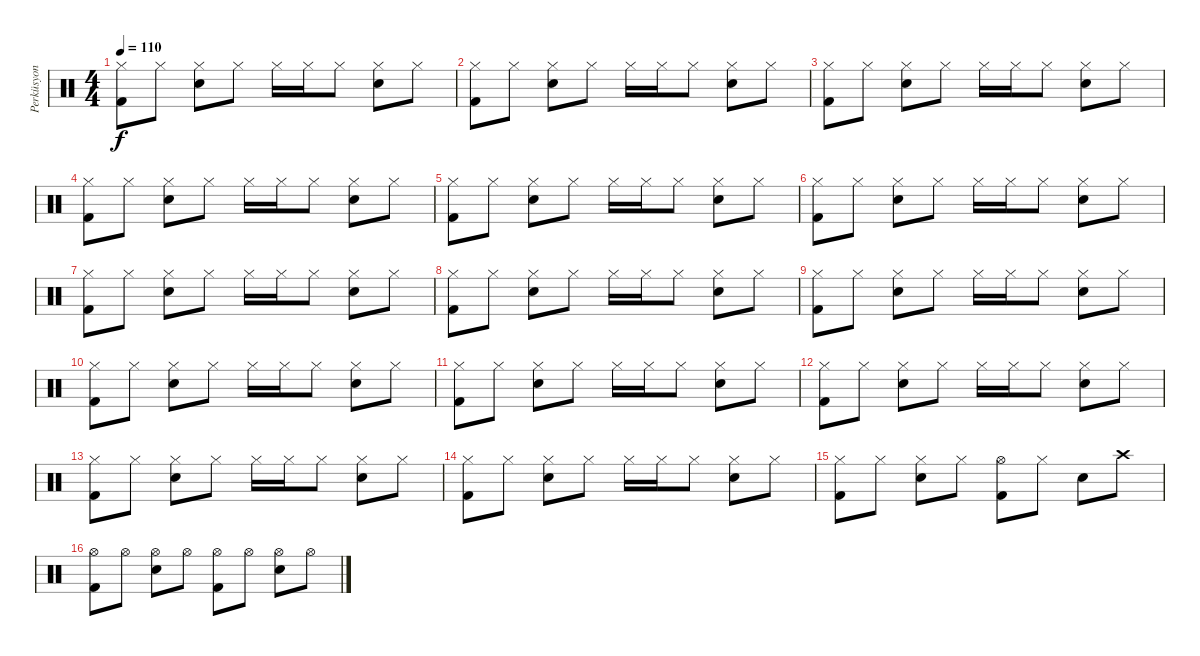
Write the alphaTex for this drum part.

\track ("Perküsyon" "Perküsyon") {instrument percussion}
\staff {score}
\articulation defaults
\ts (4 4)
\tempo 110
\clef neutral
\ks c
("Hi-Hat (closed)" "Kick (hit) 2").8{dy f} "Hi-Hat (closed)".8 ("Hi-Hat (closed)" "Snare (hit) 2").8 "Hi-Hat (closed)".8 "Hi-Hat (closed)".16 "Hi-Hat (closed)".16 "Hi-Hat (closed)".8 ("Hi-Hat (closed)" "Snare (hit) 2").8 "Hi-Hat (closed)".8 |
("Hi-Hat (closed)" "Kick (hit) 2").8 "Hi-Hat (closed)".8 ("Hi-Hat (closed)" "Snare (hit) 2").8 "Hi-Hat (closed)".8 "Hi-Hat (closed)".16 "Hi-Hat (closed)".16 "Hi-Hat (closed)".8 ("Hi-Hat (closed)" "Snare (hit) 2").8 "Hi-Hat (closed)".8 |
("Hi-Hat (closed)" "Kick (hit) 2").8 "Hi-Hat (closed)".8 ("Hi-Hat (closed)" "Snare (hit) 2").8 "Hi-Hat (closed)".8 "Hi-Hat (closed)".16 "Hi-Hat (closed)".16 "Hi-Hat (closed)".8 ("Hi-Hat (closed)" "Snare (hit) 2").8 "Hi-Hat (closed)".8 |
("Hi-Hat (closed)" "Kick (hit) 2").8 "Hi-Hat (closed)".8 ("Hi-Hat (closed)" "Snare (hit) 2").8 "Hi-Hat (closed)".8 "Hi-Hat (closed)".16 "Hi-Hat (closed)".16 "Hi-Hat (closed)".8 ("Hi-Hat (closed)" "Snare (hit) 2").8 "Hi-Hat (closed)".8 |
("Hi-Hat (closed)" "Kick (hit) 2").8 "Hi-Hat (closed)".8 ("Hi-Hat (closed)" "Snare (hit) 2").8 "Hi-Hat (closed)".8 "Hi-Hat (closed)".16 "Hi-Hat (closed)".16 "Hi-Hat (closed)".8 ("Hi-Hat (closed)" "Snare (hit) 2").8 "Hi-Hat (closed)".8 |
("Hi-Hat (closed)" "Kick (hit) 2").8 "Hi-Hat (closed)".8 ("Hi-Hat (closed)" "Snare (hit) 2").8 "Hi-Hat (closed)".8 "Hi-Hat (closed)".16 "Hi-Hat (closed)".16 "Hi-Hat (closed)".8 ("Hi-Hat (closed)" "Snare (hit) 2").8 "Hi-Hat (closed)".8 |
("Hi-Hat (closed)" "Kick (hit) 2").8 "Hi-Hat (closed)".8 ("Hi-Hat (closed)" "Snare (hit) 2").8 "Hi-Hat (closed)".8 "Hi-Hat (closed)".16 "Hi-Hat (closed)".16 "Hi-Hat (closed)".8 ("Hi-Hat (closed)" "Snare (hit) 2").8 "Hi-Hat (closed)".8 |
("Hi-Hat (closed)" "Kick (hit) 2").8 "Hi-Hat (closed)".8 ("Hi-Hat (closed)" "Snare (hit) 2").8 "Hi-Hat (closed)".8 "Hi-Hat (closed)".16 "Hi-Hat (closed)".16 "Hi-Hat (closed)".8 ("Hi-Hat (closed)" "Snare (hit) 2").8 "Hi-Hat (closed)".8 |
("Hi-Hat (closed)" "Kick (hit) 2").8 "Hi-Hat (closed)".8 ("Hi-Hat (closed)" "Snare (hit) 2").8 "Hi-Hat (closed)".8 "Hi-Hat (closed)".16 "Hi-Hat (closed)".16 "Hi-Hat (closed)".8 ("Hi-Hat (closed)" "Snare (hit) 2").8 "Hi-Hat (closed)".8 |
("Hi-Hat (closed)" "Kick (hit) 2").8 "Hi-Hat (closed)".8 ("Hi-Hat (closed)" "Snare (hit) 2").8 "Hi-Hat (closed)".8 "Hi-Hat (closed)".16 "Hi-Hat (closed)".16 "Hi-Hat (closed)".8 ("Hi-Hat (closed)" "Snare (hit) 2").8 "Hi-Hat (closed)".8 |
("Hi-Hat (closed)" "Kick (hit) 2").8 "Hi-Hat (closed)".8 ("Hi-Hat (closed)" "Snare (hit) 2").8 "Hi-Hat (closed)".8 "Hi-Hat (closed)".16 "Hi-Hat (closed)".16 "Hi-Hat (closed)".8 ("Hi-Hat (closed)" "Snare (hit) 2").8 "Hi-Hat (closed)".8 |
("Hi-Hat (closed)" "Kick (hit) 2").8 "Hi-Hat (closed)".8 ("Hi-Hat (closed)" "Snare (hit) 2").8 "Hi-Hat (closed)".8 "Hi-Hat (closed)".16 "Hi-Hat (closed)".16 "Hi-Hat (closed)".8 ("Hi-Hat (closed)" "Snare (hit) 2").8 "Hi-Hat (closed)".8 |
("Hi-Hat (closed)" "Kick (hit) 2").8 "Hi-Hat (closed)".8 ("Hi-Hat (closed)" "Snare (hit) 2").8 "Hi-Hat (closed)".8 "Hi-Hat (closed)".16 "Hi-Hat (closed)".16 "Hi-Hat (closed)".8 ("Hi-Hat (closed)" "Snare (hit) 2").8 "Hi-Hat (closed)".8 |
("Hi-Hat (closed)" "Kick (hit) 2").8 "Hi-Hat (closed)".8 ("Hi-Hat (closed)" "Snare (hit) 2").8 "Hi-Hat (closed)".8 "Hi-Hat (closed)".16 "Hi-Hat (closed)".16 "Hi-Hat (closed)".8 ("Hi-Hat (closed)" "Snare (hit) 2").8 "Hi-Hat (closed)".8 |
("Hi-Hat (closed)" "Kick (hit) 2").8 "Hi-Hat (closed)".8 ("Hi-Hat (closed)" "Snare (hit) 2").8 "Hi-Hat (closed)".8 ("Hi-Hat (open)" "Kick (hit) 2").8 "Hi-Hat (closed)".8 "Snare (hit) 2".8 "Crash high (hit)".8 |
("Hi-Hat (open)" "Kick (hit) 2").8 "Hi-Hat (open)".8 ("Hi-Hat (open)" "Snare (hit) 2").8 "Hi-Hat (open)".8 ("Hi-Hat (open)" "Kick (hit) 2").8 "Hi-Hat (open)".8 ("Hi-Hat (open)" "Snare (hit) 2").8 "Hi-Hat (open)".8
